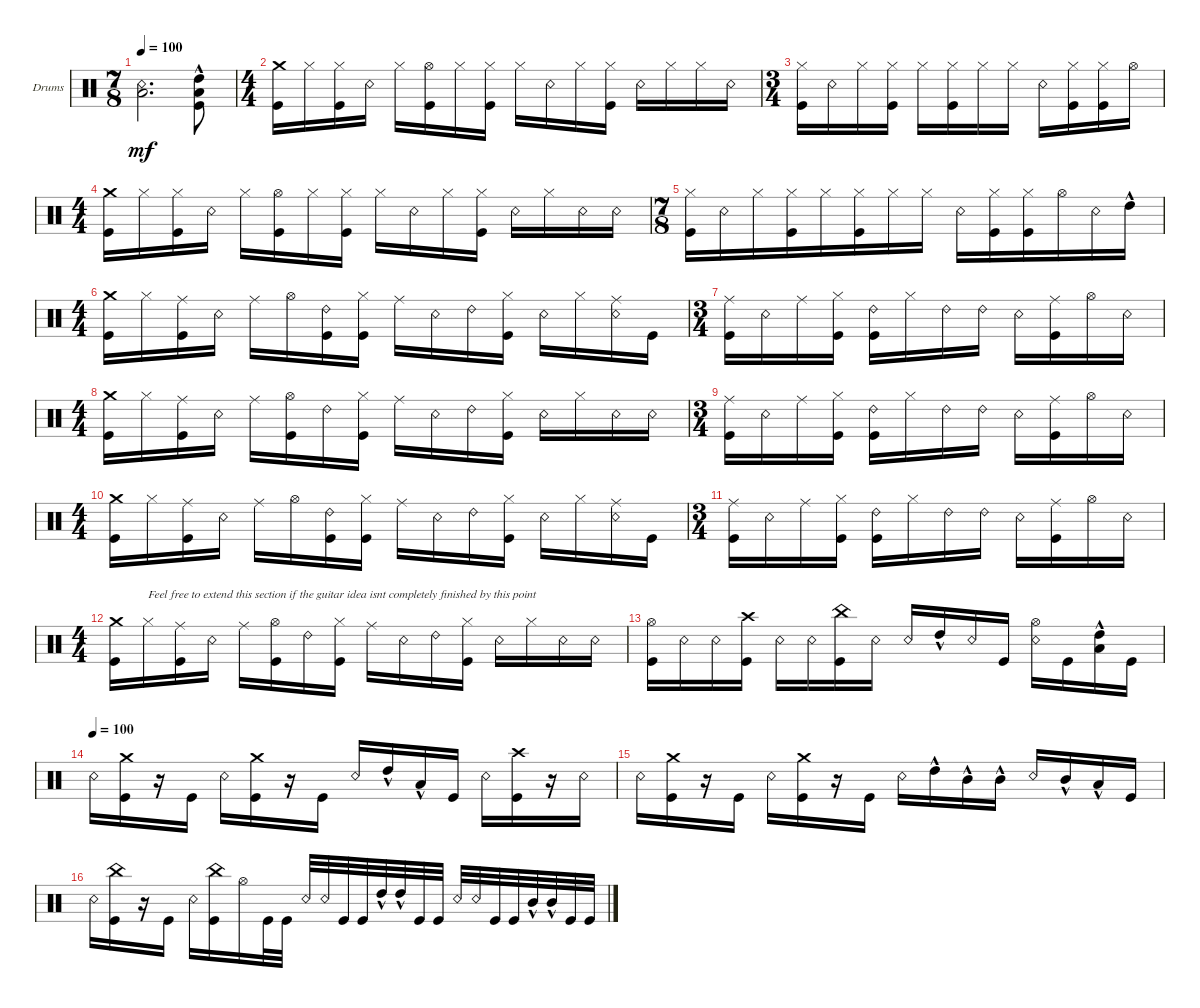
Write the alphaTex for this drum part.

\defaultSystemsLayout 4
\bracketExtendMode groupsimilarinstruments
\firstSystemTrackNameOrientation horizontal
\otherSystemsTrackNameOrientation horizontal
\track ("Drumkit" "Drums") {instrument percussion}
\staff {score}
\articulation defaults
\ts (7 8)
\tempo 100
\clef neutral
\ks c
("Snare (rim shot)" "Low Tom (hit)").2{d dy mf} ("Kick (hit)" "Low Tom (hit)"{hac} "High Tom (hit)"{hac}).8 |
\ts (4 4)
("Kick (hit)" "Crash medium (hit)").16 "Hi-Hat (closed)".16 ("Kick (hit)" "Hi-Hat (closed)").16 "Snare (rim shot)".16 "Hi-Hat (closed)".16 ("Kick (hit)" "Hi-Hat (open)").16 "Hi-Hat (closed)".16 ("Hi-Hat (closed)" "Kick (hit)").16 "Hi-Hat (closed)".16 "Snare (rim shot)".16 "Hi-Hat (closed)".16 ("Hi-Hat (closed)" "Kick (hit)").16 "Snare (rim shot)".16 "Hi-Hat (closed)".16 "Hi-Hat (closed)".16 "Snare (rim shot)".16 |
\ts (3 4)
("Hi-Hat (closed)" "Kick (hit)").16 "Snare (rim shot)".16 "Hi-Hat (closed)".16 ("Hi-Hat (closed)" "Kick (hit)").16 "Hi-Hat (closed)".16 ("Hi-Hat (closed)" "Kick (hit)").16 "Hi-Hat (closed)".16 "Hi-Hat (closed)".16 "Snare (rim shot)".16 ("Hi-Hat (closed)" "Kick (hit)").16 ("Hi-Hat (closed)" "Kick (hit)").16 "Hi-Hat (open)".16 |
\ts (4 4)
("Kick (hit)" "Crash medium (hit)").16 "Hi-Hat (closed)".16 ("Kick (hit)" "Hi-Hat (closed)").16 "Snare (rim shot)".16 "Hi-Hat (closed)".16 ("Kick (hit)" "Hi-Hat (open)").16 "Hi-Hat (closed)".16 ("Hi-Hat (closed)" "Kick (hit)").16 "Hi-Hat (closed)".16 "Snare (rim shot)".16 "Hi-Hat (closed)".16 ("Hi-Hat (closed)" "Kick (hit)").16 "Snare (rim shot)".16 "Hi-Hat (closed)".16 "Snare (rim shot)".16 "Snare (rim shot)".16 |
\ts (7 8)
("Hi-Hat (closed)" "Kick (hit)").16 "Snare (rim shot)".16 "Hi-Hat (closed)".16 ("Hi-Hat (closed)" "Kick (hit)").16 "Hi-Hat (closed)".16 ("Hi-Hat (closed)" "Kick (hit)").16 "Hi-Hat (closed)".16 "Hi-Hat (closed)".16 "Snare (rim shot)".16 ("Hi-Hat (closed)" "Kick (hit)").16 ("Hi-Hat (closed)" "Kick (hit)").16 "Hi-Hat (open)".16 "Snare (rim shot)".16 "High Tom (hit)"{hac}.16 |
\ts (4 4)
("Kick (hit)" "Crash medium (hit)").16 "Hi-Hat (closed)".16 ("Kick (hit)" "Ride (middle)").16 "Snare (rim shot)".16 "Ride (middle)".16 "Hi-Hat (open)".16 ("Ride (bell) 2" "Kick (hit)").16 ("Hi-Hat (closed)" "Kick (hit)").16 "Ride (middle)".16 "Snare (rim shot)".16 "Ride (bell) 2".16 ("Hi-Hat (closed)" "Kick (hit)").16 "Snare (rim shot)".16 "Hi-Hat (closed)".16 ("Ride (middle)" "Snare (rim shot)").16 "Kick (hit)".16 |
\ts (3 4)
("Kick (hit)" "Ride (middle)").16 "Snare (rim shot)".16 "Ride (middle)".16 ("Hi-Hat (closed)" "Kick (hit)").16 ("Ride (bell) 2" "Kick (hit)").16 "Hi-Hat (closed)".16 "Ride (bell) 2".16 "Ride (bell) 2".16 "Snare (rim shot)".16 ("Kick (hit)" "Ride (middle)").16 "Hi-Hat (open)".16 "Snare (rim shot)".16 |
\ts (4 4)
("Kick (hit)" "Crash medium (hit)").16 "Hi-Hat (closed)".16 ("Kick (hit)" "Ride (middle)").16 "Snare (rim shot)".16 "Ride (middle)".16 ("Kick (hit)" "Hi-Hat (open)").16 "Ride (bell) 2".16 ("Hi-Hat (closed)" "Kick (hit)").16 "Ride (middle)".16 "Snare (rim shot)".16 "Ride (bell) 2".16 ("Hi-Hat (closed)" "Kick (hit)").16 "Snare (rim shot)".16 "Hi-Hat (closed)".16 "Snare (rim shot)".16 "Snare (rim shot)".16 |
\ts (3 4)
("Kick (hit)" "Ride (middle)").16 "Snare (rim shot)".16 "Ride (middle)".16 ("Hi-Hat (closed)" "Kick (hit)").16 ("Ride (bell) 2" "Kick (hit)").16 "Hi-Hat (closed)".16 "Ride (bell) 2".16 "Ride (bell) 2".16 "Snare (rim shot)".16 ("Kick (hit)" "Ride (middle)").16 "Hi-Hat (open)".16 "Snare (rim shot)".16 |
\ts (4 4)
("Kick (hit)" "Crash medium (hit)").16 "Hi-Hat (closed)".16 ("Kick (hit)" "Ride (middle)").16 "Snare (rim shot)".16 "Ride (middle)".16 "Hi-Hat (open)".16 ("Ride (bell) 2" "Kick (hit)").16 ("Hi-Hat (closed)" "Kick (hit)").16 "Ride (middle)".16 "Snare (rim shot)".16 "Ride (bell) 2".16 ("Hi-Hat (closed)" "Kick (hit)").16 "Snare (rim shot)".16 "Hi-Hat (closed)".16 ("Ride (middle)" "Snare (rim shot)").16 "Kick (hit)".16 |
\ts (3 4)
("Kick (hit)" "Ride (middle)").16 "Snare (rim shot)".16 "Ride (middle)".16 ("Hi-Hat (closed)" "Kick (hit)").16 ("Ride (bell) 2" "Kick (hit)").16 "Hi-Hat (closed)".16 "Ride (bell) 2".16 "Ride (bell) 2".16 "Snare (rim shot)".16 ("Kick (hit)" "Ride (middle)").16 "Hi-Hat (open)".16 "Snare (rim shot)".16 |
\ts (4 4)
("Kick (hit)" "Crash medium (hit)").16 "Hi-Hat (closed)".16{txt "Feel free to extend this section if the guitar idea isnt completely finished by this point"} ("Kick (hit)" "Ride (middle)").16 "Snare (rim shot)".16 "Ride (middle)".16 ("Kick (hit)" "Hi-Hat (open)").16 "Ride (bell) 2".16 ("Hi-Hat (closed)" "Kick (hit)").16 "Ride (middle)".16 "Snare (rim shot)".16 "Ride (bell) 2".16 ("Hi-Hat (closed)" "Kick (hit)").16 "Snare (rim shot)".16 "Hi-Hat (closed)".16 "Snare (rim shot)".16 "Snare (rim shot)".16 |
("Kick (hit)" "Hi-Hat (open)").16 "Snare (rim shot)".16 "Snare (rim shot)".16 ("Kick (hit)" "Crash high (hit)").16 "Snare (rim shot)".16 "Snare (rim shot)".16 ("China (hit)" "Kick (hit)").16 "Snare (rim shot)".16 "Snare (rim shot)".16 "High Tom (hit)"{hac}.16 "Snare (rim shot)".16 "Kick (hit)".16 ("Snare (rim shot)" "Hi-Hat (open)").16 "Kick (hit)".16 ("Low Tom (hit)"{hac} "High Tom (hit)"{hac}).16 "Kick (hit)".16 |
\tempo (100)
"Snare (rim shot)".16 ("Kick (hit)" "Crash medium (hit)").16 r.16 "Kick (hit)".16 "Snare (rim shot)".16 ("Kick (hit)" "Crash medium (hit)").16 r.16 "Kick (hit)".16 "Snare (rim shot)".16 "High Tom (hit)"{hac}.16 "Low Tom (hit)"{hac}.16 "Kick (hit)".16 "Snare (rim shot)".16 ("Kick (hit)" "Crash high (hit)").16 r.16 "Snare (rim shot)".16 |
"Snare (rim shot)".16 ("Kick (hit)" "Crash medium (hit)").16 r.16 "Kick (hit)".16 "Snare (rim shot)".16 ("Kick (hit)" "Crash medium (hit)").16 r.16 "Kick (hit)".16 "Snare (rim shot)".16 "High Tom (hit)"{hac}.16 "Mid Tom (hit)"{hac}.16 "Mid Tom (hit)"{hac}.16 "Snare (rim shot)".16 "Mid Tom (hit)"{hac}.16 "Low Tom (hit)"{hac}.16 "Kick (hit)".16 |
"Snare (rim shot)".16 ("China (hit)" "Kick (hit)").16 r.16 "Kick (hit)".16 "Snare (rim shot)".16 ("China (hit)" "Kick (hit)").16 "Hi-Hat (open)".16 "Kick (hit)".32 "Kick (hit)".32 "Snare (rim shot)".32 "Snare (rim shot)".32 "Kick (hit)".32 "Kick (hit)".32 "High Tom (hit)"{hac}.32 "High Tom (hit)"{hac}.32 "Kick (hit)".32 "Kick (hit)".32 "Snare (rim shot)".32 "Snare (rim shot)".32 "Kick (hit)".32 "Kick (hit)".32 "Mid Tom (hit)"{hac}.32 "Mid Tom (hit)"{hac}.32 "Kick (hit)".32 "Kick (hit)".32
